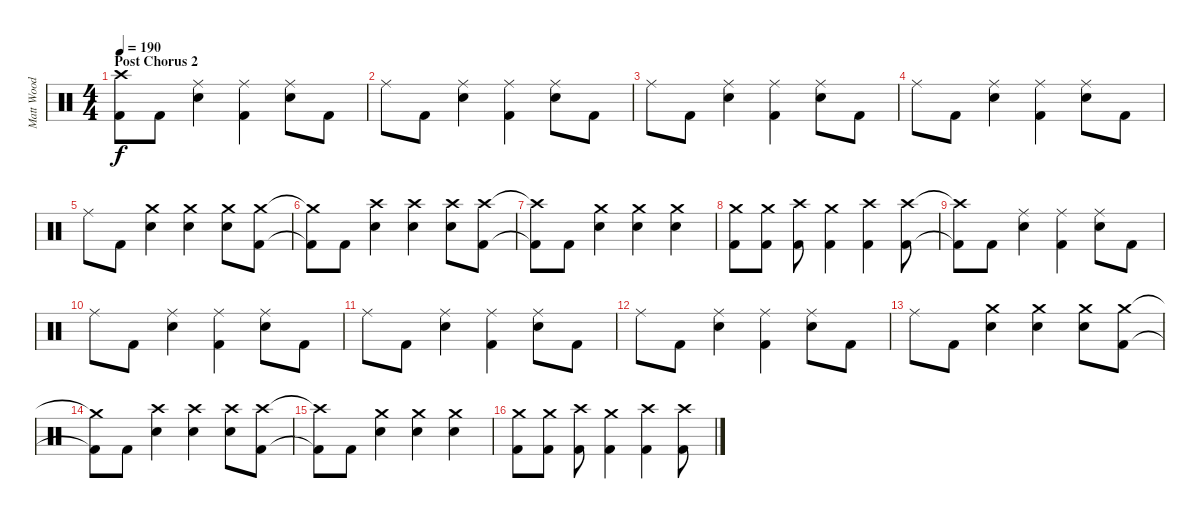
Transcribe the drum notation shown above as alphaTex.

\track ("Matt Wood" "Matt Wood") {instrument percussion}
\staff {score}
\articulation defaults
\ts (4 4)
\section ("" "Post Chorus 2")
\tempo 190
\clef neutral
\ks c
("Crash high (hit)"{t} "Kick (hit) 2"{t}).8{dy f} "Kick (hit) 2".8 ("Ride (middle)" "Snare (hit) 2").4 ("Ride (middle)" "Kick (hit) 2").4 ("Ride (middle)" "Snare (hit) 2").8 "Kick (hit) 2".8 |
"Ride (middle)".8 "Kick (hit) 2".8 ("Ride (middle)" "Snare (hit) 2").4 ("Ride (middle)" "Kick (hit) 2").4 ("Ride (middle)" "Snare (hit) 2").8 "Kick (hit) 2".8 |
"Ride (middle)".8 "Kick (hit) 2".8 ("Ride (middle)" "Snare (hit) 2").4 ("Ride (middle)" "Kick (hit) 2").4 ("Ride (middle)" "Snare (hit) 2").8 "Kick (hit) 2".8 |
"Ride (middle)".8 "Kick (hit) 2".8 ("Ride (middle)" "Snare (hit) 2").4 ("Ride (middle)" "Kick (hit) 2").4 ("Ride (middle)" "Snare (hit) 2").8 "Kick (hit) 2".8 |
"Ride (middle)".8 "Kick (hit) 2".8 ("Crash medium (hit)" "Snare (hit) 2").4 ("Crash medium (hit)" "Snare (hit) 2").4 ("Crash medium (hit)" "Snare (hit) 2").8 ("Crash medium (hit)" "Kick (hit) 2").8 |
("Crash medium (hit)"{t} "Kick (hit) 2"{t}).8 "Kick (hit) 2".8 ("Crash high (hit)" "Snare (hit) 2").4 ("Crash high (hit)" "Snare (hit) 2").4 ("Crash high (hit)" "Snare (hit) 2").8 ("Crash high (hit)" "Kick (hit) 2").8 |
("Crash high (hit)"{t} "Kick (hit) 2"{t}).8 "Kick (hit) 2".8 ("Crash medium (hit)" "Snare (hit) 2").4 ("Crash medium (hit)" "Snare (hit) 2").4 ("Crash medium (hit)" "Snare (hit) 2").4 |
("Crash medium (hit)" "Kick (hit) 2").8 ("Crash medium (hit)" "Kick (hit) 2").8 ("Crash high (hit)" "Kick (hit) 2").8 ("Crash medium (hit)" "Kick (hit) 2").4 ("Crash high (hit)" "Kick (hit) 2").4 ("Crash high (hit)" "Kick (hit) 2").8 |
("Crash high (hit)"{t} "Kick (hit) 2"{t}).8 "Kick (hit) 2".8 ("Ride (middle)" "Snare (hit) 2").4 ("Ride (middle)" "Kick (hit) 2").4 ("Ride (middle)" "Snare (hit) 2").8 "Kick (hit) 2".8 |
"Ride (middle)".8 "Kick (hit) 2".8 ("Ride (middle)" "Snare (hit) 2").4 ("Ride (middle)" "Kick (hit) 2").4 ("Ride (middle)" "Snare (hit) 2").8 "Kick (hit) 2".8 |
"Ride (middle)".8 "Kick (hit) 2".8 ("Ride (middle)" "Snare (hit) 2").4 ("Ride (middle)" "Kick (hit) 2").4 ("Ride (middle)" "Snare (hit) 2").8 "Kick (hit) 2".8 |
"Ride (middle)".8 "Kick (hit) 2".8 ("Ride (middle)" "Snare (hit) 2").4 ("Ride (middle)" "Kick (hit) 2").4 ("Ride (middle)" "Snare (hit) 2").8 "Kick (hit) 2".8 |
"Ride (middle)".8 "Kick (hit) 2".8 ("Crash medium (hit)" "Snare (hit) 2").4 ("Crash medium (hit)" "Snare (hit) 2").4 ("Crash medium (hit)" "Snare (hit) 2").8 ("Crash medium (hit)" "Kick (hit) 2").8 |
("Crash medium (hit)"{t} "Kick (hit) 2"{t}).8 "Kick (hit) 2".8 ("Crash high (hit)" "Snare (hit) 2").4 ("Crash high (hit)" "Snare (hit) 2").4 ("Crash high (hit)" "Snare (hit) 2").8 ("Crash high (hit)" "Kick (hit) 2").8 |
("Crash high (hit)"{t} "Kick (hit) 2"{t}).8 "Kick (hit) 2".8 ("Crash medium (hit)" "Snare (hit) 2").4 ("Crash medium (hit)" "Snare (hit) 2").4 ("Crash medium (hit)" "Snare (hit) 2").4 |
("Crash medium (hit)" "Kick (hit) 2").8 ("Crash medium (hit)" "Kick (hit) 2").8 ("Crash high (hit)" "Kick (hit) 2").8 ("Crash medium (hit)" "Kick (hit) 2").4 ("Crash high (hit)" "Kick (hit) 2").4 ("Crash high (hit)" "Kick (hit) 2").8
